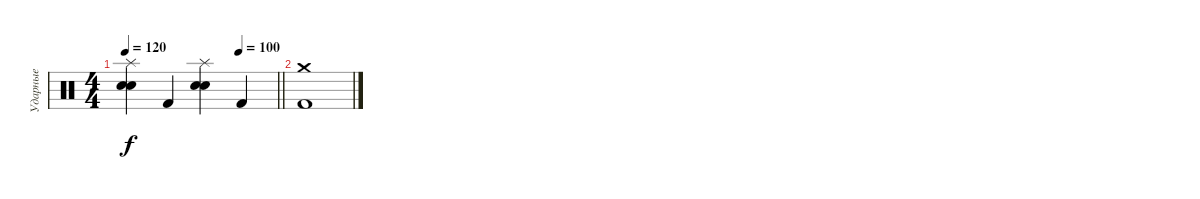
\track ("Ударные" "Ударные") {instrument percussion}
\staff {score}
\articulation defaults
\ts (4 4)
\tempo 120
\tempo (100 0.75)
\clef neutral
\barLineRight lightlight
\ks c
("Splash (hit)" "Electric Snare (hit)" "Snare (hit) 2").4{dy f} "Kick (hit) 2".4 ("Splash (hit)" "Electric Snare (hit)" "Snare (hit) 2").4 "Kick (hit) 2".4 |
("Crash medium (hit)" "Kick (hit) 2").1
